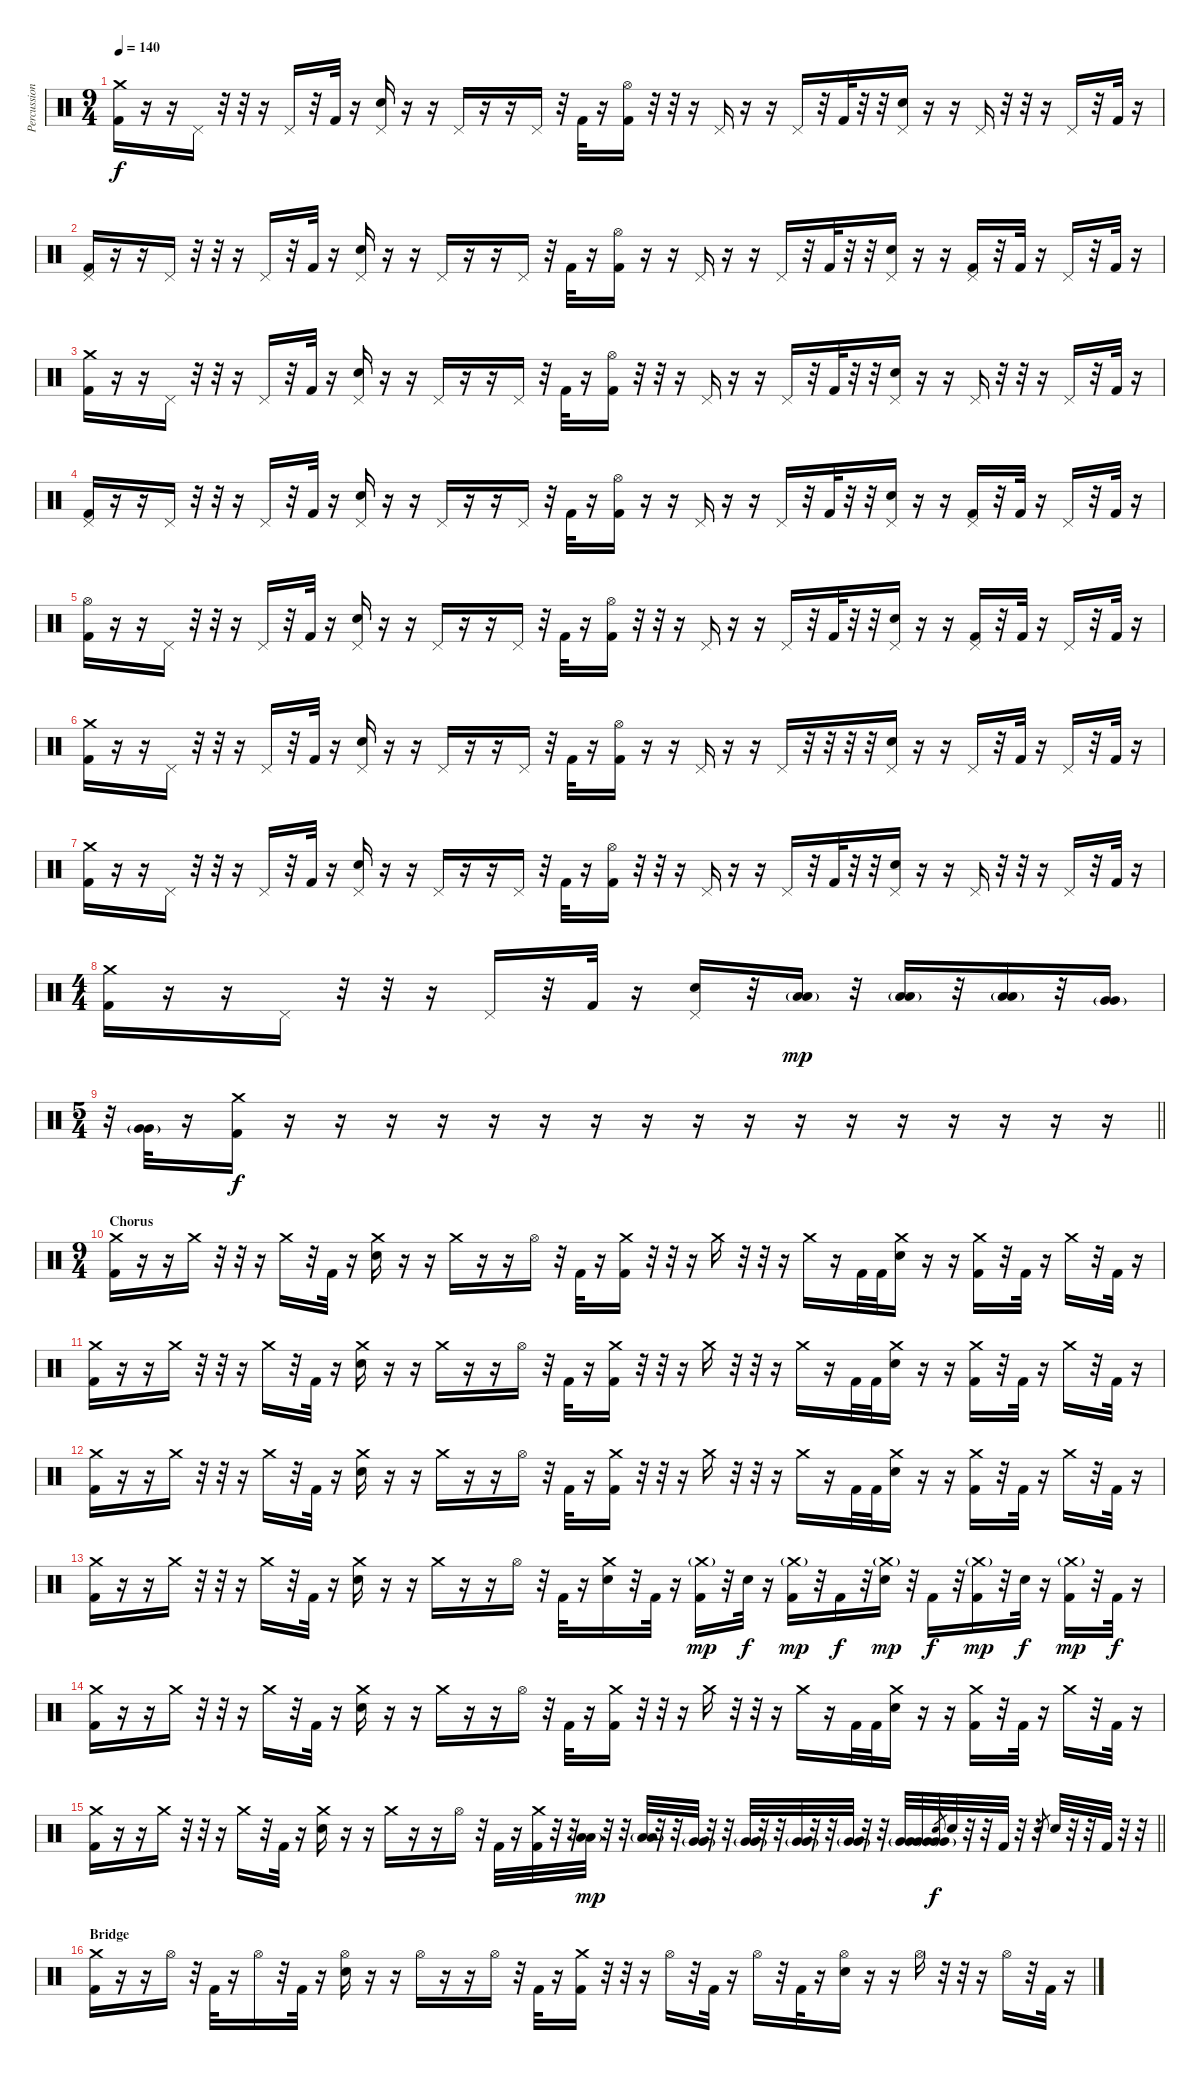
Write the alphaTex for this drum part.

\track ("Percussion" "Percussion") {instrument percussion}
\staff {score}
\articulation defaults
\ts (9 4)
\tempo 140
\clef neutral
\ks c
("Crash medium (hit)" "Kick (hit) 2").16{dy f} r.16 r.16 "Pedal Hi-Hat (hit)".16 r.32 r.32 r.16 "Pedal Hi-Hat (hit)".16 r.32 "Kick (hit) 2".32 r.16 ("Pedal Hi-Hat (hit)" "Electric Snare (hit)").16 r.16 r.16 "Pedal Hi-Hat (hit)".16 r.16 r.16 "Pedal Hi-Hat (hit)".16 r.32 "Kick (hit) 2".32 r.16 ("Hi-Hat (open)" "Kick (hit) 2").16 r.32 r.32 r.16 "Pedal Hi-Hat (hit)".16 r.16 r.16 "Pedal Hi-Hat (hit)".16 r.32 "Kick (hit) 2".32 r.32 r.32 ("Pedal Hi-Hat (hit)" "Electric Snare (hit)").16 r.16 r.16 "Pedal Hi-Hat (hit)".16 r.32 r.32 r.16 "Pedal Hi-Hat (hit)".16 r.32 "Kick (hit) 2".32 r.16 |
("Pedal Hi-Hat (hit)" "Kick (hit) 2").16 r.16 r.16 "Pedal Hi-Hat (hit)".16 r.32 r.32 r.16 "Pedal Hi-Hat (hit)".16 r.32 "Kick (hit) 2".32 r.16 ("Pedal Hi-Hat (hit)" "Electric Snare (hit)").16 r.16 r.16 "Pedal Hi-Hat (hit)".16 r.16 r.16 "Pedal Hi-Hat (hit)".16 r.32 "Kick (hit) 2".32 r.16 ("Hi-Hat (open)" "Kick (hit) 2").16 r.16 r.16 "Pedal Hi-Hat (hit)".16 r.16 r.16 "Pedal Hi-Hat (hit)".16 r.32 "Kick (hit) 2".32 r.32 r.32 ("Pedal Hi-Hat (hit)" "Electric Snare (hit)").16 r.16 r.16 ("Pedal Hi-Hat (hit)" "Kick (hit) 2").16 r.32 "Kick (hit) 2".32 r.16 "Pedal Hi-Hat (hit)".16 r.32 "Kick (hit) 2".32 r.16 |
("Crash medium (hit)" "Kick (hit) 2").16 r.16 r.16 "Pedal Hi-Hat (hit)".16 r.32 r.32 r.16 "Pedal Hi-Hat (hit)".16 r.32 "Kick (hit) 2".32 r.16 ("Pedal Hi-Hat (hit)" "Electric Snare (hit)").16 r.16 r.16 "Pedal Hi-Hat (hit)".16 r.16 r.16 "Pedal Hi-Hat (hit)".16 r.32 "Kick (hit) 2".32 r.16 ("Hi-Hat (open)" "Kick (hit) 2").16 r.32 r.32 r.16 "Pedal Hi-Hat (hit)".16 r.16 r.16 "Pedal Hi-Hat (hit)".16 r.32 "Kick (hit) 2".32 r.32 r.32 ("Pedal Hi-Hat (hit)" "Electric Snare (hit)").16 r.16 r.16 "Pedal Hi-Hat (hit)".16 r.32 r.32 r.16 "Pedal Hi-Hat (hit)".16 r.32 "Kick (hit) 2".32 r.16 |
("Pedal Hi-Hat (hit)" "Kick (hit) 2").16 r.16 r.16 "Pedal Hi-Hat (hit)".16 r.32 r.32 r.16 "Pedal Hi-Hat (hit)".16 r.32 "Kick (hit) 2".32 r.16 ("Pedal Hi-Hat (hit)" "Electric Snare (hit)").16 r.16 r.16 "Pedal Hi-Hat (hit)".16 r.16 r.16 "Pedal Hi-Hat (hit)".16 r.32 "Kick (hit) 2".32 r.16 ("Hi-Hat (open)" "Kick (hit) 2").16 r.16 r.16 "Pedal Hi-Hat (hit)".16 r.16 r.16 "Pedal Hi-Hat (hit)".16 r.32 "Kick (hit) 2".32 r.32 r.32 ("Pedal Hi-Hat (hit)" "Electric Snare (hit)").16 r.16 r.16 ("Pedal Hi-Hat (hit)" "Kick (hit) 2").16 r.32 "Kick (hit) 2".32 r.16 "Pedal Hi-Hat (hit)".16 r.32 "Kick (hit) 2".32 r.16 |
("Hi-Hat (open)" "Kick (hit) 2").16 r.16 r.16 "Pedal Hi-Hat (hit)".16 r.32 r.32 r.16 "Pedal Hi-Hat (hit)".16 r.32 "Kick (hit) 2".32 r.16 ("Pedal Hi-Hat (hit)" "Electric Snare (hit)").16 r.16 r.16 "Pedal Hi-Hat (hit)".16 r.16 r.16 "Pedal Hi-Hat (hit)".16 r.32 "Kick (hit) 2".32 r.16 ("Hi-Hat (open)" "Kick (hit) 2").16 r.32 r.32 r.16 "Pedal Hi-Hat (hit)".16 r.16 r.16 "Pedal Hi-Hat (hit)".16 r.32 "Kick (hit) 2".32 r.32 r.32 ("Pedal Hi-Hat (hit)" "Electric Snare (hit)").16 r.16 r.16 ("Pedal Hi-Hat (hit)" "Kick (hit) 2").16 r.32 "Kick (hit) 2".32 r.16 "Pedal Hi-Hat (hit)".16 r.32 "Kick (hit) 2".32 r.16 |
("Crash medium (hit)" "Kick (hit) 2").16 r.16 r.16 "Pedal Hi-Hat (hit)".16 r.32 r.32 r.16 "Pedal Hi-Hat (hit)".16 r.32 "Kick (hit) 2".32 r.16 ("Pedal Hi-Hat (hit)" "Electric Snare (hit)").16 r.16 r.16 "Pedal Hi-Hat (hit)".16 r.16 r.16 "Pedal Hi-Hat (hit)".16 r.32 "Kick (hit) 2".32 r.16 ("Hi-Hat (open)" "Kick (hit) 2").16 r.16 r.16 "Pedal Hi-Hat (hit)".16 r.16 r.16 "Pedal Hi-Hat (hit)".16 r.32 r.32 r.32 r.32 ("Pedal Hi-Hat (hit)" "Electric Snare (hit)").16 r.16 r.16 "Pedal Hi-Hat (hit)".16 r.32 "Kick (hit) 2".32 r.16 "Pedal Hi-Hat (hit)".16 r.32 "Kick (hit) 2".32 r.16 |
("Crash medium (hit)" "Kick (hit) 2").16 r.16 r.16 "Pedal Hi-Hat (hit)".16 r.32 r.32 r.16 "Pedal Hi-Hat (hit)".16 r.32 "Kick (hit) 2".32 r.16 ("Pedal Hi-Hat (hit)" "Electric Snare (hit)").16 r.16 r.16 "Pedal Hi-Hat (hit)".16 r.16 r.16 "Pedal Hi-Hat (hit)".16 r.32 "Kick (hit) 2".32 r.16 ("Hi-Hat (open)" "Kick (hit) 2").16 r.32 r.32 r.16 "Pedal Hi-Hat (hit)".16 r.16 r.16 "Pedal Hi-Hat (hit)".16 r.32 "Kick (hit) 2".32 r.32 r.32 ("Pedal Hi-Hat (hit)" "Electric Snare (hit)").16 r.16 r.16 "Pedal Hi-Hat (hit)".16 r.32 r.32 r.16 "Pedal Hi-Hat (hit)".16 r.32 "Kick (hit) 2".32 r.16 |
\ts (4 4)
("Crash medium (hit)" "Kick (hit) 2").16 r.16 r.16 "Pedal Hi-Hat (hit)".16 r.32 r.32 r.16 "Pedal Hi-Hat (hit)".16 r.32 "Kick (hit) 2".32 r.16 ("Pedal Hi-Hat (hit)" "Electric Snare (hit)").16 r.32 ("Low Tom (hit)"{g} "Low Tom (hit)").16{dy mp} r.32 ("Low Tom (hit)"{g} "Low Tom (hit)").16 r.32 ("Low Tom (hit)"{g} "Low Tom (hit)").16 r.32 ("Very Low Tom (hit)"{g} "Very Low Tom (hit)").16 |
\ts (5 4)
\barLineRight lightlight
r.32 ("Very Low Tom (hit)"{g} "Very Low Tom (hit)").32 r.16 ("Crash medium (hit)" "Kick (hit) 2").16{dy f} r.16 r.16 r.16 r.16 r.16 r.16 r.16 r.16 r.16 r.16 r.16 r.16 r.16 r.16 r.16 r.16 r.16 |
\ts (9 4)
\section ("" "Chorus")
("Crash medium (hit)" "Kick (hit) 2").16 r.16 r.16 "Crash medium (hit)".16 r.32 r.32 r.16 "Crash medium (hit)".16 r.32 "Kick (hit) 2".32 r.16 ("Crash medium (hit)" "Electric Snare (hit)").16 r.16 r.16 "Crash medium (hit)".16 r.16 r.16 "Hi-Hat (open)".16 r.32 "Kick (hit) 2".32 r.16 ("Crash medium (hit)" "Kick (hit) 2").16 r.32 r.32 r.16 "Crash medium (hit)".16 r.32 r.32 r.16 "Crash medium (hit)".16 r.16 "Kick (hit) 2".32 "Kick (hit) 2".32 ("Crash medium (hit)" "Electric Snare (hit)").16 r.16 r.16 ("Crash medium (hit)" "Kick (hit) 2").16 r.32 "Kick (hit) 2".32 r.16 "Crash medium (hit)".16 r.32 "Kick (hit) 2".32 r.16 |
("Crash medium (hit)" "Kick (hit) 2").16 r.16 r.16 "Crash medium (hit)".16 r.32 r.32 r.16 "Crash medium (hit)".16 r.32 "Kick (hit) 2".32 r.16 ("Crash medium (hit)" "Electric Snare (hit)").16 r.16 r.16 "Crash medium (hit)".16 r.16 r.16 "Hi-Hat (open)".16 r.32 "Kick (hit) 2".32 r.16 ("Crash medium (hit)" "Kick (hit) 2").16 r.32 r.32 r.16 "Crash medium (hit)".16 r.32 r.32 r.16 "Crash medium (hit)".16 r.16 "Kick (hit) 2".32 "Kick (hit) 2".32 ("Crash medium (hit)" "Electric Snare (hit)").16 r.16 r.16 ("Crash medium (hit)" "Kick (hit) 2").16 r.32 "Kick (hit) 2".32 r.16 "Crash medium (hit)".16 r.32 "Kick (hit) 2".32 r.16 |
("Crash medium (hit)" "Kick (hit) 2").16 r.16 r.16 "Crash medium (hit)".16 r.32 r.32 r.16 "Crash medium (hit)".16 r.32 "Kick (hit) 2".32 r.16 ("Crash medium (hit)" "Electric Snare (hit)").16 r.16 r.16 "Crash medium (hit)".16 r.16 r.16 "Hi-Hat (open)".16 r.32 "Kick (hit) 2".32 r.16 ("Crash medium (hit)" "Kick (hit) 2").16 r.32 r.32 r.16 "Crash medium (hit)".16 r.32 r.32 r.16 "Crash medium (hit)".16 r.16 "Kick (hit) 2".32 "Kick (hit) 2".32 ("Crash medium (hit)" "Electric Snare (hit)").16 r.16 r.16 ("Crash medium (hit)" "Kick (hit) 2").16 r.32 "Kick (hit) 2".32 r.16 "Crash medium (hit)".16 r.32 "Kick (hit) 2".32 r.16 |
("Crash medium (hit)" "Kick (hit) 2").16 r.16 r.16 "Crash medium (hit)".16 r.32 r.32 r.16 "Crash medium (hit)".16 r.32 "Kick (hit) 2".32 r.16 ("Crash medium (hit)" "Electric Snare (hit)").16 r.16 r.16 "Crash medium (hit)".16 r.16 r.16 "Hi-Hat (open)".16 r.32 "Kick (hit) 2".32 r.16 ("Crash medium (hit)" "Electric Snare (hit)").16 r.32 "Kick (hit) 2".32 r.16 ("Crash medium (hit)"{g} "Kick (hit) 2").16{dy mp} r.32 "Electric Snare (hit)".32{dy f} r.16 ("Crash medium (hit)"{g} "Kick (hit) 2").16{dy mp} r.32 "Kick (hit) 2".16{dy f} r.32 ("Crash medium (hit)"{g} "Electric Snare (hit)").16{dy mp} r.32 "Kick (hit) 2".16{dy f} r.32 ("Crash medium (hit)"{g} "Kick (hit) 2").16{dy mp} r.32 "Electric Snare (hit)".32{dy f} r.16 ("Crash medium (hit)"{g} "Kick (hit) 2").16{dy mp} r.32 "Kick (hit) 2".32{dy f} r.16 |
("Crash medium (hit)" "Kick (hit) 2").16 r.16 r.16 "Crash medium (hit)".16 r.32 r.32 r.16 "Crash medium (hit)".16 r.32 "Kick (hit) 2".32 r.16 ("Crash medium (hit)" "Electric Snare (hit)").16 r.16 r.16 "Crash medium (hit)".16 r.16 r.16 "Hi-Hat (open)".16 r.32 "Kick (hit) 2".32 r.16 ("Crash medium (hit)" "Kick (hit) 2").16 r.32 r.32 r.16 "Crash medium (hit)".16 r.32 r.32 r.16 "Crash medium (hit)".16 r.16 "Kick (hit) 2".32 "Kick (hit) 2".32 ("Crash medium (hit)" "Electric Snare (hit)").16 r.16 r.16 ("Crash medium (hit)" "Kick (hit) 2").16 r.32 "Kick (hit) 2".32 r.16 "Crash medium (hit)".16 r.32 "Kick (hit) 2".32 r.16 |
\barLineRight lightlight
("Crash medium (hit)" "Kick (hit) 2").16 r.16 r.16 "Crash medium (hit)".16 r.32 r.32 r.16 "Crash medium (hit)".16 r.32 "Kick (hit) 2".32 r.16 ("Crash medium (hit)" "Electric Snare (hit)").16 r.16 r.16 "Crash medium (hit)".16 r.16 r.16 "Hi-Hat (open)".16 r.32 "Kick (hit) 2".32 r.16 ("Crash medium (hit)" "Kick (hit) 2").32 r.32 r.32 ("Low Tom (hit)"{g} "Low Tom (hit)").32{dy mp} r.32 r.32 ("Low Tom (hit)"{g} "Low Tom (hit)").32 r.32 r.32 ("Very Low Tom (hit)"{g} "Very Low Tom (hit)").32 r.32 r.32 ("Very Low Tom (hit)"{g} "Very Low Tom (hit)").32 r.32 r.32 ("Very Low Tom (hit)"{g} "Very Low Tom (hit)").32 r.32 r.32 ("Very Low Tom (hit)"{g} "Very Low Tom (hit)").32 r.32 r.32 ("Very Low Tom (hit)"{g} "Very Low Tom (hit)").32 ("Very Low Tom (hit)"{g} "Very Low Tom (hit)").32 ("Very Low Tom (hit)"{g} "Very Low Tom (hit)").32 "Electric Snare (hit)".8{gr dy f} "Electric Snare (hit)".32 r.32 r.32 "Kick (hit) 2".32 r.32 r.32 "Electric Snare (hit)".8{gr} "Electric Snare (hit)".32 r.32 r.32 "Kick (hit) 2".32 r.32 r.32 |
\section ("" "Bridge")
("Crash medium (hit)" "Kick (hit) 2").16 r.16 r.16 "Hi-Hat (open)".16 r.32 "Kick (hit) 2".32 r.16 "Hi-Hat (open)".16 r.32 "Kick (hit) 2".32 r.16 ("Hi-Hat (open)" "Electric Snare (hit)").16 r.16 r.16 "Hi-Hat (open)".16 r.16 r.16 "Hi-Hat (open)".16 r.32 "Kick (hit) 2".32 r.16 ("Crash medium (hit)" "Kick (hit) 2").16 r.32 r.32 r.16 "Hi-Hat (open)".16 r.32 "Kick (hit) 2".32 r.16 "Hi-Hat (open)".16 r.32 "Kick (hit) 2".32 r.16 ("Hi-Hat (open)" "Electric Snare (hit)").16 r.16 r.16 "Hi-Hat (open)".16 r.32 r.32 r.16 "Hi-Hat (open)".16 r.32 "Kick (hit) 2".32 r.16
